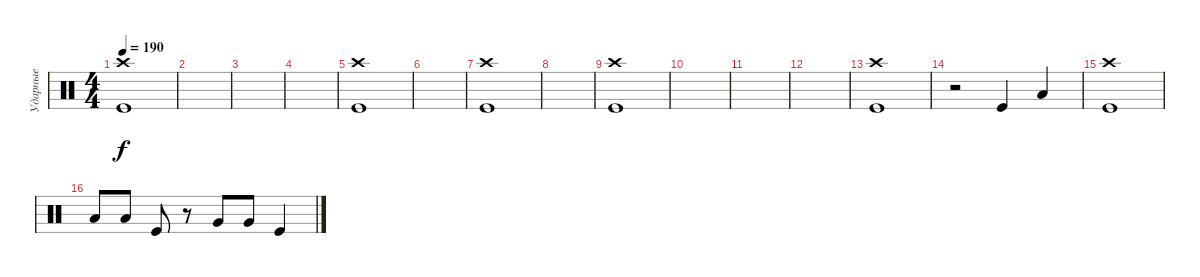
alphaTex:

\track ("Ударные" "Ударные") {instrument percussion}
\staff {score}
\articulation defaults
\ts (4 4)
\tempo 190
\clef neutral
\ks c
("Crash high (hit)" "Kick (hit)").1{dy f} |
|
|
|
("Crash high (hit)" "Kick (hit)").1 |
|
("Crash high (hit)" "Kick (hit)").1 |
|
("Crash high (hit)" "Kick (hit)").1 |
|
|
|
("Crash high (hit)" "Kick (hit)").1 |
r.2 "Kick (hit)".4 "Low Tom (hit)".4 |
("Crash high (hit)" "Kick (hit)").1 |
"Low Tom (hit)".8 "Low Tom (hit)".8 "Kick (hit)".8 r.8 "Very Low Tom (hit)".8 "Very Low Tom (hit)".8 "Kick (hit)".4
